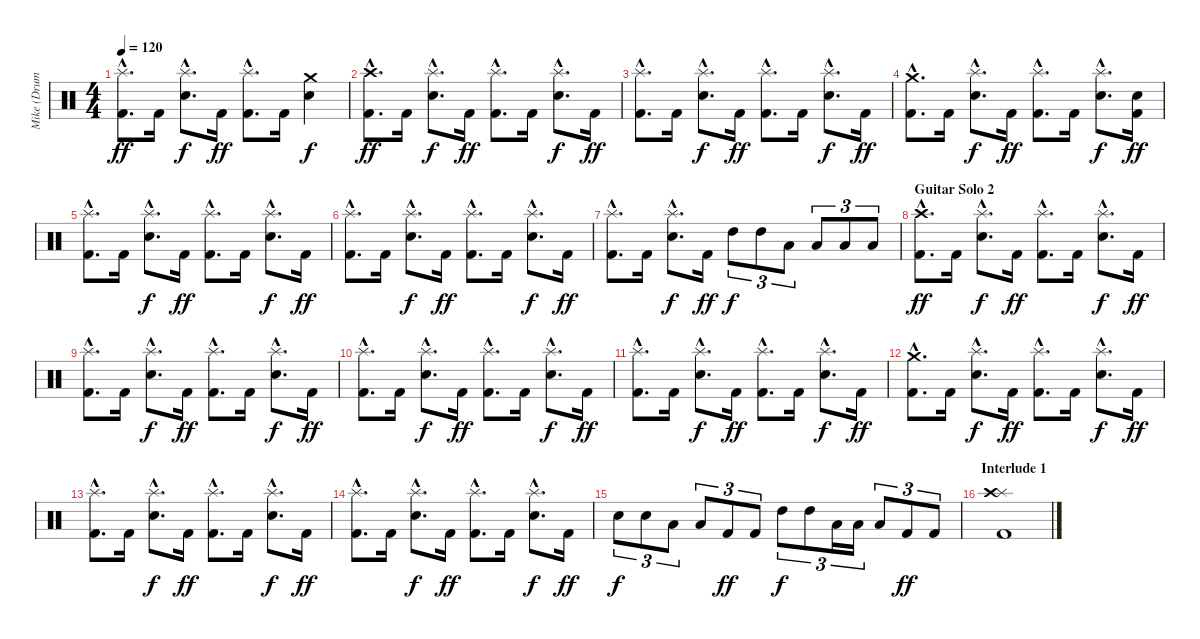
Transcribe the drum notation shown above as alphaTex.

\track ("Mike (Drums)" "Mike (Drum") {instrument percussion}
\staff {score}
\articulation defaults
\ts (4 4)
\tempo 120
\clef neutral
\ks c
("Splash (hit)"{hac} "Kick (hit) 2"{hac}).8{d dy ff} "Kick (hit) 2".16 ("Splash (hit)"{hac} "Electric Snare (hit)"{hac}).8{d dy f} "Kick (hit) 2".16{dy ff} ("Splash (hit)"{hac} "Kick (hit) 2"{hac}).8{d} "Kick (hit) 2".16 ("Crash medium (hit)" "Electric Snare (hit)").4{dy f} |
("Crash high (hit)"{hac} "Kick (hit) 2"{hac}).8{d dy ff} "Kick (hit) 2".16 ("Splash (hit)"{hac} "Electric Snare (hit)"{hac}).8{d dy f} "Kick (hit) 2".16{dy ff} ("Splash (hit)"{hac} "Kick (hit) 2"{hac}).8{d} "Kick (hit) 2".16 ("Splash (hit)"{hac} "Electric Snare (hit)"{hac}).8{d dy f} "Kick (hit) 2".16{dy ff} |
("Splash (hit)"{hac} "Kick (hit) 2"{hac}).8{d} "Kick (hit) 2".16 ("Splash (hit)"{hac} "Electric Snare (hit)"{hac}).8{d dy f} "Kick (hit) 2".16{dy ff} ("Splash (hit)"{hac} "Kick (hit) 2"{hac}).8{d} "Kick (hit) 2".16 ("Splash (hit)"{hac} "Electric Snare (hit)"{hac}).8{d dy f} "Kick (hit) 2".16{dy ff} |
("Crash medium (hit)"{hac} "Kick (hit) 2"{hac}).8{d} "Kick (hit) 2".16 ("Splash (hit)"{hac} "Electric Snare (hit)"{hac}).8{d dy f} "Kick (hit) 2".16{dy ff} ("Splash (hit)"{hac} "Kick (hit) 2"{hac}).8{d} "Kick (hit) 2".16 ("Splash (hit)"{hac} "Electric Snare (hit)"{hac}).8{d dy f} ("Snare (hit) 2" "Kick (hit) 2").16{dy ff} |
("Splash (hit)"{hac} "Kick (hit) 2"{hac}).8{d} "Kick (hit) 2".16 ("Splash (hit)"{hac} "Electric Snare (hit)"{hac}).8{d dy f} "Kick (hit) 2".16{dy ff} ("Splash (hit)"{hac} "Kick (hit) 2"{hac}).8{d} "Kick (hit) 2".16 ("Splash (hit)"{hac} "Electric Snare (hit)"{hac}).8{d dy f} "Kick (hit) 2".16{dy ff} |
("Splash (hit)"{hac} "Kick (hit) 2"{hac}).8{d} "Kick (hit) 2".16 ("Splash (hit)"{hac} "Electric Snare (hit)"{hac}).8{d dy f} "Kick (hit) 2".16{dy ff} ("Splash (hit)"{hac} "Kick (hit) 2"{hac}).8{d} "Kick (hit) 2".16 ("Splash (hit)"{hac} "Electric Snare (hit)"{hac}).8{d dy f} "Kick (hit) 2".16{dy ff} |
("Splash (hit)"{hac} "Kick (hit) 2"{hac}).8{d} "Kick (hit) 2".16 ("Splash (hit)"{hac} "Electric Snare (hit)"{hac}).8{d dy f} "Kick (hit) 2".16{dy ff} "High Tom (hit)".8{tu (3 2) dy f} "High Tom (hit)".8{tu (3 2)} "Low Tom (hit)".8{tu (3 2)} "Low Tom (hit)".8{tu (3 2)} "Low Floor Tom (hit)".8{tu (3 2)} "Low Floor Tom (hit)".8{tu (3 2)} |
\section ("" "Guitar Solo 2")
("Crash high (hit)"{hac} "Kick (hit) 2"{hac}).8{d dy ff} "Kick (hit) 2".16 ("Splash (hit)"{hac} "Electric Snare (hit)"{hac}).8{d dy f} "Kick (hit) 2".16{dy ff} ("Splash (hit)"{hac} "Kick (hit) 2"{hac}).8{d} "Kick (hit) 2".16 ("Splash (hit)"{hac} "Electric Snare (hit)"{hac}).8{d dy f} "Kick (hit) 2".16{dy ff} |
("Splash (hit)"{hac} "Kick (hit) 2"{hac}).8{d} "Kick (hit) 2".16 ("Splash (hit)"{hac} "Electric Snare (hit)"{hac}).8{d dy f} "Kick (hit) 2".16{dy ff} ("Splash (hit)"{hac} "Kick (hit) 2"{hac}).8{d} "Kick (hit) 2".16 ("Splash (hit)"{hac} "Electric Snare (hit)"{hac}).8{d dy f} "Kick (hit) 2".16{dy ff} |
("Splash (hit)"{hac} "Kick (hit) 2"{hac}).8{d} "Kick (hit) 2".16 ("Splash (hit)"{hac} "Electric Snare (hit)"{hac}).8{d dy f} "Kick (hit) 2".16{dy ff} ("Splash (hit)"{hac} "Kick (hit) 2"{hac}).8{d} "Kick (hit) 2".16 ("Splash (hit)"{hac} "Electric Snare (hit)"{hac}).8{d dy f} "Kick (hit) 2".16{dy ff} |
("Splash (hit)"{hac} "Kick (hit) 2"{hac}).8{d} "Kick (hit) 2".16 ("Splash (hit)"{hac} "Electric Snare (hit)"{hac}).8{d dy f} "Kick (hit) 2".16{dy ff} ("Splash (hit)"{hac} "Kick (hit) 2"{hac}).8{d} "Kick (hit) 2".16 ("Splash (hit)"{hac} "Electric Snare (hit)"{hac}).8{d dy f} "Kick (hit) 2".16{dy ff} |
("Crash medium (hit)"{hac} "Kick (hit) 2"{hac}).8{d} "Kick (hit) 2".16 ("Splash (hit)"{hac} "Electric Snare (hit)"{hac}).8{d dy f} "Kick (hit) 2".16{dy ff} ("Splash (hit)"{hac} "Kick (hit) 2"{hac}).8{d} "Kick (hit) 2".16 ("Splash (hit)"{hac} "Electric Snare (hit)"{hac}).8{d dy f} "Kick (hit) 2".16{dy ff} |
("Splash (hit)"{hac} "Kick (hit) 2"{hac}).8{d} "Kick (hit) 2".16 ("Splash (hit)"{hac} "Electric Snare (hit)"{hac}).8{d dy f} "Kick (hit) 2".16{dy ff} ("Splash (hit)"{hac} "Kick (hit) 2"{hac}).8{d} "Kick (hit) 2".16 ("Splash (hit)"{hac} "Electric Snare (hit)"{hac}).8{d dy f} "Kick (hit) 2".16{dy ff} |
("Splash (hit)"{hac} "Kick (hit) 2"{hac}).8{d} "Kick (hit) 2".16 ("Splash (hit)"{hac} "Electric Snare (hit)"{hac}).8{d dy f} "Kick (hit) 2".16{dy ff} ("Splash (hit)"{hac} "Kick (hit) 2"{hac}).8{d} "Kick (hit) 2".16 ("Splash (hit)"{hac} "Electric Snare (hit)"{hac}).8{d dy f} "Kick (hit) 2".16{dy ff} |
"Electric Snare (hit)".8{tu (3 2) dy f} "Electric Snare (hit)".8{tu (3 2)} "Low Tom (hit)".8{tu (3 2)} "Low Tom (hit)".8{tu (3 2)} "Kick (hit) 2".8{tu (3 2) dy ff} "Kick (hit) 2".8{tu (3 2)} "High Tom (hit)".8{tu (3 2) dy f} "High Tom (hit)".8{tu (3 2)} "Low Tom (hit)".16{tu (3 2)} "Low Tom (hit)".16{tu (3 2)} "Low Tom (hit)".8{tu (3 2)} "Kick (hit) 2".8{tu (3 2) dy ff} "Kick (hit) 2".8{tu (3 2)} |
\section ("" "Interlude 1")
("Splash (hit)" "Crash high (hit)" "Kick (hit) 2").1
